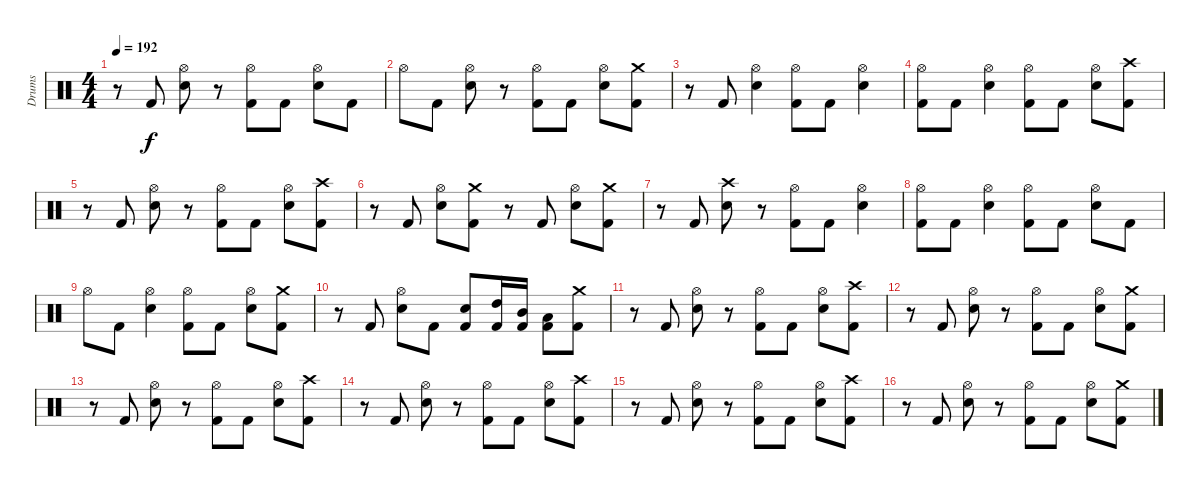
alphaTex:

\track ("Drums" "Drums") {instrument percussion}
\staff {score}
\articulation defaults
\ts (4 4)
\tempo 192
\clef neutral
\ks c
r.8{dy f} "Kick (hit) 2".8 ("Electric Snare (hit)" "Hi-Hat (open)").8 r.8 ("Kick (hit) 2" "Hi-Hat (open)").8 "Kick (hit) 2".8 ("Electric Snare (hit)" "Hi-Hat (open)").8 "Kick (hit) 2".8 |
"Hi-Hat (open)".8 "Kick (hit) 2".8 ("Electric Snare (hit)" "Hi-Hat (open)").8 r.8 ("Kick (hit) 2" "Hi-Hat (open)").8 "Kick (hit) 2".8 ("Electric Snare (hit)" "Hi-Hat (open)").8 ("Kick (hit) 2" "Crash medium (hit)").8 |
r.8 "Kick (hit) 2".8 ("Electric Snare (hit)" "Hi-Hat (open)").4 ("Kick (hit) 2" "Hi-Hat (open)").8 "Kick (hit) 2".8 ("Electric Snare (hit)" "Hi-Hat (open)").4 |
("Kick (hit) 2" "Hi-Hat (open)").8 "Kick (hit) 2".8 ("Electric Snare (hit)" "Hi-Hat (open)").4 ("Kick (hit) 2" "Hi-Hat (open)").8 "Kick (hit) 2".8 ("Electric Snare (hit)" "Hi-Hat (open)").8 ("Kick (hit) 2" "Crash high (hit)").8 |
r.8 "Kick (hit) 2".8 ("Electric Snare (hit)" "Hi-Hat (open)").8 r.8 ("Kick (hit) 2" "Hi-Hat (open)").8 "Kick (hit) 2".8 ("Electric Snare (hit)" "Hi-Hat (open)").8 ("Kick (hit) 2" "Crash high (hit)").8 |
r.8 "Kick (hit) 2".8 ("Electric Snare (hit)" "Hi-Hat (open)").8 ("Kick (hit) 2" "Crash medium (hit)").8 r.8 "Kick (hit) 2".8 ("Electric Snare (hit)" "Hi-Hat (open)").8 ("Kick (hit) 2" "Crash medium (hit)").8 |
\section ("" "")
r.8 "Kick (hit) 2".8 ("Electric Snare (hit)" "Crash high (hit)").8 r.8 ("Kick (hit) 2" "Hi-Hat (open)").8 "Kick (hit) 2".8 ("Electric Snare (hit)" "Hi-Hat (open)").4 |
("Kick (hit) 2" "Hi-Hat (open)").8 "Kick (hit) 2".8 ("Electric Snare (hit)" "Hi-Hat (open)").4 ("Kick (hit) 2" "Hi-Hat (open)").8 "Kick (hit) 2".8 ("Electric Snare (hit)" "Hi-Hat (open)").8 "Kick (hit) 2".8 |
"Hi-Hat (open)".8 "Kick (hit) 2".8 ("Electric Snare (hit)" "Hi-Hat (open)").4 ("Kick (hit) 2" "Hi-Hat (open)").8 "Kick (hit) 2".8 ("Electric Snare (hit)" "Hi-Hat (open)").8 ("Kick (hit) 2" "Crash medium (hit)").8 |
r.8 "Kick (hit) 2".8 ("Electric Snare (hit)" "Hi-Hat (open)").8 "Kick (hit) 2".8 ("Kick (hit) 2" "Electric Snare (hit)").8 ("Kick (hit) 2" "High Tom (hit)").16 ("Kick (hit) 2" "Mid Tom (hit)").16 ("Kick (hit) 2" "Low Tom (hit)").8 ("Kick (hit) 2" "Crash medium (hit)").8 |
\section ("" "")
r.8 "Kick (hit) 2".8 ("Electric Snare (hit)" "Hi-Hat (open)").8 r.8 ("Kick (hit) 2" "Hi-Hat (open)").8 "Kick (hit) 2".8 ("Electric Snare (hit)" "Hi-Hat (open)").8 ("Kick (hit) 2" "Crash high (hit)").8 |
r.8 "Kick (hit) 2".8 ("Electric Snare (hit)" "Hi-Hat (open)").8 r.8 ("Kick (hit) 2" "Hi-Hat (open)").8 "Kick (hit) 2".8 ("Electric Snare (hit)" "Hi-Hat (open)").8 ("Kick (hit) 2" "Crash medium (hit)").8 |
r.8 "Kick (hit) 2".8 ("Electric Snare (hit)" "Hi-Hat (open)").8 r.8 ("Kick (hit) 2" "Hi-Hat (open)").8 "Kick (hit) 2".8 ("Electric Snare (hit)" "Hi-Hat (open)").8 ("Kick (hit) 2" "Crash high (hit)").8 |
r.8 "Kick (hit) 2".8 ("Electric Snare (hit)" "Hi-Hat (open)").8 r.8 ("Kick (hit) 2" "Hi-Hat (open)").8 "Kick (hit) 2".8 ("Electric Snare (hit)" "Hi-Hat (open)").8 ("Kick (hit) 2" "Crash high (hit)").8 |
r.8 "Kick (hit) 2".8 ("Electric Snare (hit)" "Hi-Hat (open)").8 r.8 ("Kick (hit) 2" "Hi-Hat (open)").8 "Kick (hit) 2".8 ("Electric Snare (hit)" "Hi-Hat (open)").8 ("Kick (hit) 2" "Crash high (hit)").8 |
r.8 "Kick (hit) 2".8 ("Electric Snare (hit)" "Hi-Hat (open)").8 r.8 ("Kick (hit) 2" "Hi-Hat (open)").8 "Kick (hit) 2".8 ("Electric Snare (hit)" "Hi-Hat (open)").8 ("Kick (hit) 2" "Crash medium (hit)").8
